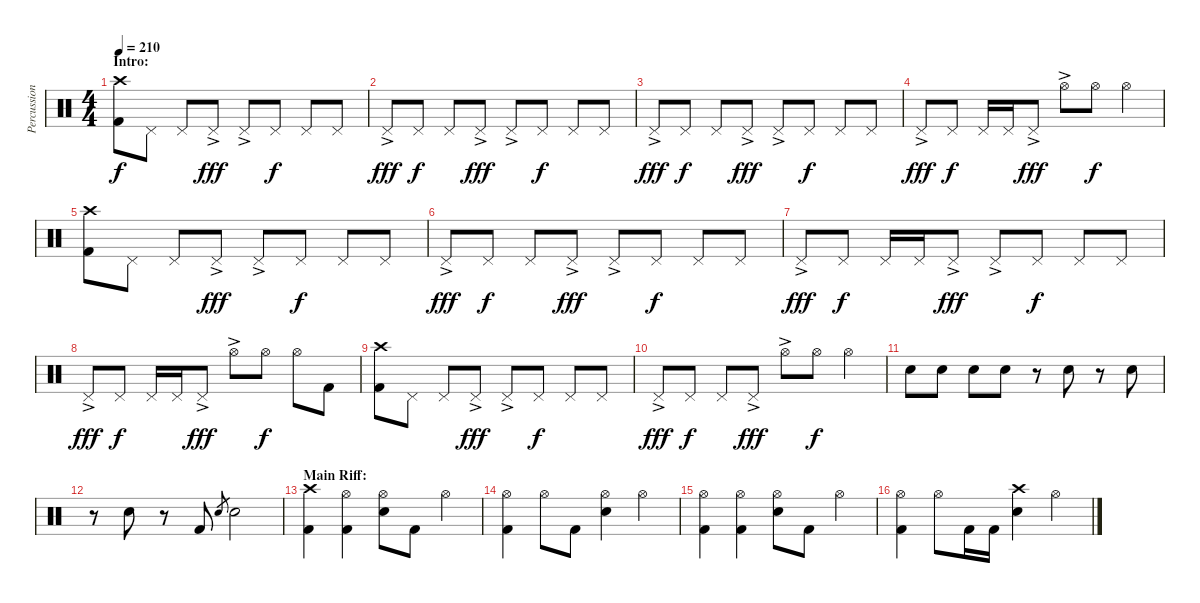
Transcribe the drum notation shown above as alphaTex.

\track ("Percussion" "Percussion") {instrument percussion}
\staff {score}
\articulation defaults
\ts (4 4)
\section ("" "Intro:")
\tempo 210
\clef neutral
\ks c
("Crash high (hit)" "Kick (hit) 2").8{dy f} "Pedal Hi-Hat (hit)".8 "Pedal Hi-Hat (hit)".8 "Pedal Hi-Hat (hit)"{ac}.8{dy fff} "Pedal Hi-Hat (hit)"{ac}.8 "Pedal Hi-Hat (hit)".8{dy f} "Pedal Hi-Hat (hit)".8 "Pedal Hi-Hat (hit)".8 |
"Pedal Hi-Hat (hit)"{ac}.8{dy fff} "Pedal Hi-Hat (hit)".8{dy f} "Pedal Hi-Hat (hit)".8 "Pedal Hi-Hat (hit)"{ac}.8{dy fff} "Pedal Hi-Hat (hit)"{ac}.8 "Pedal Hi-Hat (hit)".8{dy f} "Pedal Hi-Hat (hit)".8 "Pedal Hi-Hat (hit)".8 |
"Pedal Hi-Hat (hit)"{ac}.8{dy fff} "Pedal Hi-Hat (hit)".8{dy f} "Pedal Hi-Hat (hit)".8 "Pedal Hi-Hat (hit)"{ac}.8{dy fff} "Pedal Hi-Hat (hit)"{ac}.8 "Pedal Hi-Hat (hit)".8{dy f} "Pedal Hi-Hat (hit)".8 "Pedal Hi-Hat (hit)".8 |
"Pedal Hi-Hat (hit)"{ac}.8{dy fff} "Pedal Hi-Hat (hit)".8{dy f} "Pedal Hi-Hat (hit)".16 "Pedal Hi-Hat (hit)".16 "Pedal Hi-Hat (hit)"{ac}.8{dy fff} "Hi-Hat (open)"{ac}.8 "Hi-Hat (open)".8{dy f} "Hi-Hat (open)".4 |
("Crash high (hit)" "Kick (hit) 2").8 "Pedal Hi-Hat (hit)".8 "Pedal Hi-Hat (hit)".8 "Pedal Hi-Hat (hit)"{ac}.8{dy fff} "Pedal Hi-Hat (hit)"{ac}.8 "Pedal Hi-Hat (hit)".8{dy f} "Pedal Hi-Hat (hit)".8 "Pedal Hi-Hat (hit)".8 |
"Pedal Hi-Hat (hit)"{ac}.8{dy fff} "Pedal Hi-Hat (hit)".8{dy f} "Pedal Hi-Hat (hit)".8 "Pedal Hi-Hat (hit)"{ac}.8{dy fff} "Pedal Hi-Hat (hit)"{ac}.8 "Pedal Hi-Hat (hit)".8{dy f} "Pedal Hi-Hat (hit)".8 "Pedal Hi-Hat (hit)".8 |
"Pedal Hi-Hat (hit)"{ac}.8{dy fff} "Pedal Hi-Hat (hit)".8{dy f} "Pedal Hi-Hat (hit)".16 "Pedal Hi-Hat (hit)".16 "Pedal Hi-Hat (hit)"{ac}.8{dy fff} "Pedal Hi-Hat (hit)"{ac}.8 "Pedal Hi-Hat (hit)".8{dy f} "Pedal Hi-Hat (hit)".8 "Pedal Hi-Hat (hit)".8 |
"Pedal Hi-Hat (hit)"{ac}.8{dy fff} "Pedal Hi-Hat (hit)".8{dy f} "Pedal Hi-Hat (hit)".16 "Pedal Hi-Hat (hit)".16 "Pedal Hi-Hat (hit)"{ac}.8{dy fff} "Hi-Hat (open)"{ac}.8 "Hi-Hat (open)".8{dy f} "Hi-Hat (open)".8 "Kick (hit) 2".8 |
("Crash high (hit)" "Kick (hit) 2").8 "Pedal Hi-Hat (hit)".8 "Pedal Hi-Hat (hit)".8 "Pedal Hi-Hat (hit)"{ac}.8{dy fff} "Pedal Hi-Hat (hit)"{ac}.8 "Pedal Hi-Hat (hit)".8{dy f} "Pedal Hi-Hat (hit)".8 "Pedal Hi-Hat (hit)".8 |
"Pedal Hi-Hat (hit)"{ac}.8{dy fff} "Pedal Hi-Hat (hit)".8{dy f} "Pedal Hi-Hat (hit)".8 "Pedal Hi-Hat (hit)"{ac}.8{dy fff} "Hi-Hat (open)"{ac}.8 "Hi-Hat (open)".8{dy f} "Hi-Hat (open)".4 |
"Snare (hit) 2".8 "Snare (hit) 2".8 "Snare (hit) 2".8 "Snare (hit) 2".8 r.8 "Snare (hit) 2".8 r.8 "Snare (hit) 2".8 |
r.8 "Snare (hit) 2".8 r.8 "Kick (hit) 2".8 "Snare (hit) 2".8{gr} "Snare (hit) 2".2 |
\section ("" "Main Riff:")
("Crash high (hit)" "Kick (hit) 2").4 ("Hi-Hat (open)" "Kick (hit) 2").4 ("Hi-Hat (open)" "Snare (hit) 2").8 "Kick (hit) 2".8 "Hi-Hat (open)".4 |
("Hi-Hat (open)" "Kick (hit) 2").4 "Hi-Hat (open)".8 "Kick (hit) 2".8 ("Hi-Hat (open)" "Snare (hit) 2").4 "Hi-Hat (open)".4 |
("Hi-Hat (open)" "Kick (hit) 2").4 ("Hi-Hat (open)" "Kick (hit) 2").4 ("Hi-Hat (open)" "Snare (hit) 2").8 "Kick (hit) 2".8 "Hi-Hat (open)".4 |
("Hi-Hat (open)" "Kick (hit) 2").4 "Hi-Hat (open)".8 "Kick (hit) 2".16 "Kick (hit) 2".16 ("Crash high (hit)" "Snare (hit) 2").4 "Hi-Hat (open)".4
